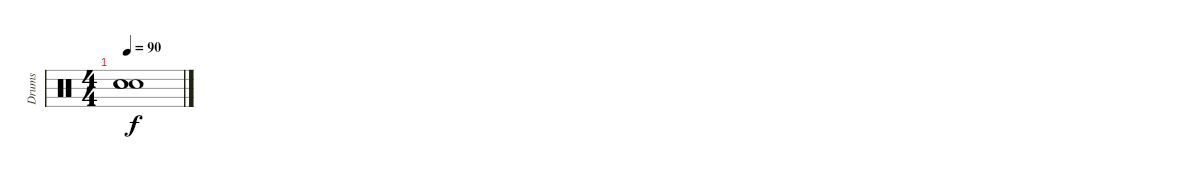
\track ("Drums" "Drums") {instrument percussion}
\staff {score}
\articulation defaults
\ts (4 4)
\tempo 90
\clef neutral
\ks c
("Snare (hit)"{t} "Snare (hit)"{t} "Snare (hit)"{t}).1{dy f}
